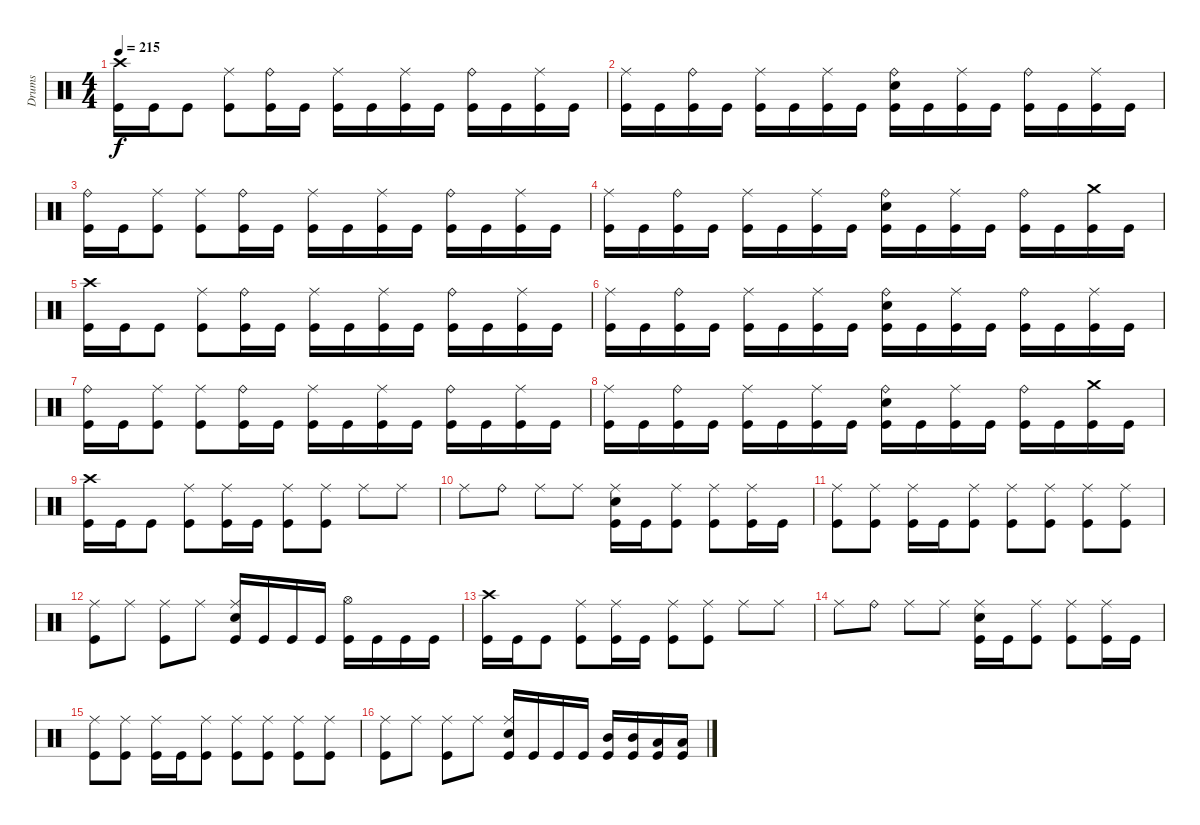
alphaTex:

\track ("Drums" "Drums") {instrument percussion}
\staff {score}
\articulation defaults
\ts (4 4)
\tempo 215
\clef neutral
\ks c
("Crash high (hit)" "Kick (hit)").16{dy f} "Kick (hit)".16 "Kick (hit)".8 ("Ride (middle)" "Kick (hit)").8 ("Ride (bell)" "Kick (hit)").16 "Kick (hit)".16 ("Ride (middle)" "Kick (hit)").16 "Kick (hit)".16 ("Ride (middle)" "Kick (hit)").16 "Kick (hit)".16 ("Ride (bell)" "Kick (hit)").16 "Kick (hit)".16 ("Ride (middle)" "Kick (hit)").16 "Kick (hit)".16 |
("Ride (middle)" "Kick (hit)").16 "Kick (hit)".16 ("Ride (bell)" "Kick (hit)").16 "Kick (hit)".16 ("Ride (middle)" "Kick (hit)").16 "Kick (hit)".16 ("Ride (middle)" "Kick (hit)").16 "Kick (hit)".16 ("Ride (bell)" "Snare (hit) 2" "Kick (hit)").16 "Kick (hit)".16 ("Ride (middle)" "Kick (hit)").16 "Kick (hit)".16 ("Ride (bell)" "Kick (hit)").16 "Kick (hit)".16 ("Ride (middle)" "Kick (hit)").16 "Kick (hit)".16 |
("Ride (bell)" "Kick (hit)").16 "Kick (hit)".16 ("Ride (middle)" "Kick (hit)").8 ("Ride (middle)" "Kick (hit)").8 ("Ride (bell)" "Kick (hit)").16 "Kick (hit)".16 ("Ride (middle)" "Kick (hit)").16 "Kick (hit)".16 ("Ride (middle)" "Kick (hit)").16 "Kick (hit)".16 ("Ride (bell)" "Kick (hit)").16 "Kick (hit)".16 ("Ride (middle)" "Kick (hit)").16 "Kick (hit)".16 |
("Ride (middle)" "Kick (hit)").16 "Kick (hit)".16 ("Ride (bell)" "Kick (hit)").16 "Kick (hit)".16 ("Ride (middle)" "Kick (hit)").16 "Kick (hit)".16 ("Ride (middle)" "Kick (hit)").16 "Kick (hit)".16 ("Ride (bell)" "Snare (hit) 2" "Kick (hit)").16 "Kick (hit)".16 ("Ride (middle)" "Kick (hit)").16 "Kick (hit)".16 ("Ride (bell)" "Kick (hit)").16 "Kick (hit)".16 ("Crash medium (hit)" "Kick (hit)").16 "Kick (hit)".16 |
("Crash high (hit)" "Kick (hit)").16 "Kick (hit)".16 "Kick (hit)".8 ("Ride (middle)" "Kick (hit)").8 ("Ride (bell)" "Kick (hit)").16 "Kick (hit)".16 ("Ride (middle)" "Kick (hit)").16 "Kick (hit)".16 ("Ride (middle)" "Kick (hit)").16 "Kick (hit)".16 ("Ride (bell)" "Kick (hit)").16 "Kick (hit)".16 ("Ride (middle)" "Kick (hit)").16 "Kick (hit)".16 |
("Ride (middle)" "Kick (hit)").16 "Kick (hit)".16 ("Ride (bell)" "Kick (hit)").16 "Kick (hit)".16 ("Ride (middle)" "Kick (hit)").16 "Kick (hit)".16 ("Ride (middle)" "Kick (hit)").16 "Kick (hit)".16 ("Ride (bell)" "Snare (hit) 2" "Kick (hit)").16 "Kick (hit)".16 ("Ride (middle)" "Kick (hit)").16 "Kick (hit)".16 ("Ride (bell)" "Kick (hit)").16 "Kick (hit)".16 ("Ride (middle)" "Kick (hit)").16 "Kick (hit)".16 |
("Ride (bell)" "Kick (hit)").16 "Kick (hit)".16 ("Ride (middle)" "Kick (hit)").8 ("Ride (middle)" "Kick (hit)").8 ("Ride (bell)" "Kick (hit)").16 "Kick (hit)".16 ("Ride (middle)" "Kick (hit)").16 "Kick (hit)".16 ("Ride (middle)" "Kick (hit)").16 "Kick (hit)".16 ("Ride (bell)" "Kick (hit)").16 "Kick (hit)".16 ("Ride (middle)" "Kick (hit)").16 "Kick (hit)".16 |
("Ride (middle)" "Kick (hit)").16 "Kick (hit)".16 ("Ride (bell)" "Kick (hit)").16 "Kick (hit)".16 ("Ride (middle)" "Kick (hit)").16 "Kick (hit)".16 ("Ride (middle)" "Kick (hit)").16 "Kick (hit)".16 ("Ride (bell)" "Snare (hit) 2" "Kick (hit)").16 "Kick (hit)".16 ("Ride (middle)" "Kick (hit)").16 "Kick (hit)".16 ("Ride (bell)" "Kick (hit)").16 "Kick (hit)".16 ("Crash medium (hit)" "Kick (hit)").16 "Kick (hit)".16 |
("Crash high (hit)" "Kick (hit)").16 "Kick (hit)".16 "Kick (hit)".8 ("Ride (middle)" "Kick (hit)").8 ("Ride (middle)" "Kick (hit)").16 "Kick (hit)".16 ("Ride (middle)" "Kick (hit)").8 ("Ride (middle)" "Kick (hit)").8 "Ride (middle)".8 "Ride (middle)".8 |
"Ride (middle)".8 "Ride (bell)".8 "Ride (middle)".8 "Ride (middle)".8 ("Ride (middle)" "Snare (hit) 2" "Kick (hit)").16 "Kick (hit)".16 ("Ride (middle)" "Kick (hit)").8 ("Ride (middle)" "Kick (hit)").8 ("Ride (middle)" "Kick (hit)").16 "Kick (hit)".16 |
("Ride (middle)" "Kick (hit)").8 ("Ride (middle)" "Kick (hit)").8 ("Ride (middle)" "Kick (hit)").16 "Kick (hit)".16 ("Ride (middle)" "Kick (hit)").8 ("Ride (middle)" "Kick (hit)").8 ("Ride (middle)" "Kick (hit)").8 ("Ride (middle)" "Kick (hit)").8 ("Ride (middle)" "Kick (hit)").8 |
("Ride (middle)" "Kick (hit)").8 "Ride (middle)".8 ("Ride (middle)" "Kick (hit)").8 "Ride (middle)".8 ("Ride (middle)" "Snare (hit) 2" "Kick (hit)").16 "Kick (hit)".16 "Kick (hit)".16 "Kick (hit)".16 ("Hi-Hat (open)" "Kick (hit)").16 "Kick (hit)".16 "Kick (hit)".16 "Kick (hit)".16 |
("Crash high (hit)" "Kick (hit)").16 "Kick (hit)".16 "Kick (hit)".8 ("Ride (middle)" "Kick (hit)").8 ("Ride (middle)" "Kick (hit)").16 "Kick (hit)".16 ("Ride (middle)" "Kick (hit)").8 ("Ride (middle)" "Kick (hit)").8 "Ride (middle)".8 "Ride (middle)".8 |
"Ride (middle)".8 "Ride (bell)".8 "Ride (middle)".8 "Ride (middle)".8 ("Ride (middle)" "Snare (hit) 2" "Kick (hit)").16 "Kick (hit)".16 ("Ride (middle)" "Kick (hit)").8 ("Ride (middle)" "Kick (hit)").8 ("Ride (middle)" "Kick (hit)").16 "Kick (hit)".16 |
("Ride (middle)" "Kick (hit)").8 ("Ride (middle)" "Kick (hit)").8 ("Ride (middle)" "Kick (hit)").16 "Kick (hit)".16 ("Ride (middle)" "Kick (hit)").8 ("Ride (middle)" "Kick (hit)").8 ("Ride (middle)" "Kick (hit)").8 ("Ride (middle)" "Kick (hit)").8 ("Ride (middle)" "Kick (hit)").8 |
("Ride (middle)" "Kick (hit)").8 "Ride (middle)".8 ("Ride (middle)" "Kick (hit)").8 "Ride (middle)".8 ("Ride (middle)" "Snare (hit) 2" "Kick (hit)").16 "Kick (hit)".16 "Kick (hit)".16 "Kick (hit)".16 ("Mid Tom (hit)" "Kick (hit)").16 ("Mid Tom (hit)" "Kick (hit)").16 ("Low Tom (hit)" "Kick (hit)").16 ("Low Tom (hit)" "Kick (hit)").16
